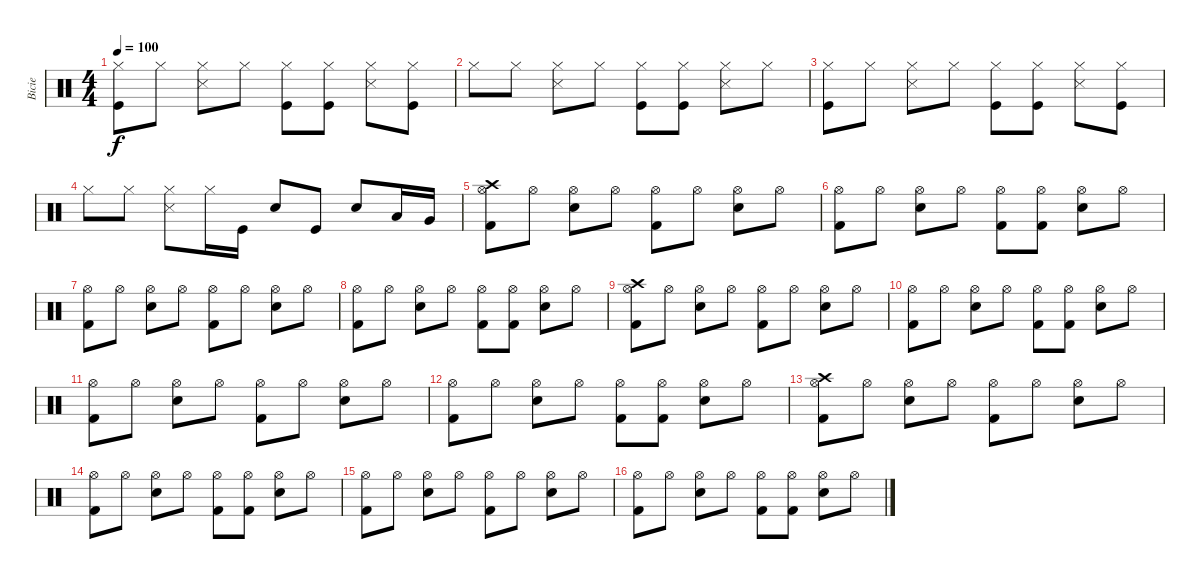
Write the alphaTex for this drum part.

\track ("Bicie" "Bicie") {instrument percussion}
\staff {score}
\articulation defaults
\ts (4 4)
\tempo 100
\clef neutral
\ks c
("Hi-Hat (closed)" "Kick (hit)").8{dy f} "Hi-Hat (closed)".8 ("Hi-Hat (closed)" "Snare (side stick) 3").8 "Hi-Hat (closed)".8 ("Hi-Hat (closed)" "Kick (hit)").8 ("Hi-Hat (closed)" "Kick (hit)").8 ("Hi-Hat (closed)" "Snare (side stick) 3").8 ("Hi-Hat (closed)" "Kick (hit)").8 |
"Hi-Hat (closed)".8 "Hi-Hat (closed)".8 ("Hi-Hat (closed)" "Snare (side stick) 3").8 "Hi-Hat (closed)".8 ("Hi-Hat (closed)" "Kick (hit)").8 ("Hi-Hat (closed)" "Kick (hit)").8 ("Hi-Hat (closed)" "Snare (side stick) 3").8 "Hi-Hat (closed)".8 |
("Hi-Hat (closed)" "Kick (hit)").8 "Hi-Hat (closed)".8 ("Hi-Hat (closed)" "Snare (side stick) 3").8 "Hi-Hat (closed)".8 ("Hi-Hat (closed)" "Kick (hit)").8 ("Hi-Hat (closed)" "Kick (hit)").8 ("Hi-Hat (closed)" "Snare (side stick) 3").8 ("Hi-Hat (closed)" "Kick (hit)").8 |
"Hi-Hat (closed)".8 "Hi-Hat (closed)".8 ("Hi-Hat (closed)" "Snare (side stick) 3").8 "Hi-Hat (closed)".16 "Kick (hit)".16 "Snare (hit) 2".8 "Kick (hit)".8 "Snare (hit) 2".8 "Low Tom (hit)".16 "Very Low Tom (hit)".16 |
("Crash high (hit)" "Hi-Hat (open)" "Kick (hit) 2").8 "Hi-Hat (open)".8 ("Hi-Hat (open)" "Snare (hit) 2").8 "Hi-Hat (open)".8 ("Hi-Hat (open)" "Kick (hit) 2").8 "Hi-Hat (open)".8 ("Hi-Hat (open)" "Snare (hit) 2").8 "Hi-Hat (open)".8 |
("Hi-Hat (open)" "Kick (hit) 2").8 "Hi-Hat (open)".8 ("Hi-Hat (open)" "Snare (hit) 2").8 "Hi-Hat (open)".8 ("Hi-Hat (open)" "Kick (hit) 2").8 ("Hi-Hat (open)" "Kick (hit) 2").8 ("Hi-Hat (open)" "Snare (hit) 2").8 "Hi-Hat (open)".8 |
("Hi-Hat (open)" "Kick (hit) 2").8 "Hi-Hat (open)".8 ("Hi-Hat (open)" "Snare (hit) 2").8 "Hi-Hat (open)".8 ("Hi-Hat (open)" "Kick (hit) 2").8 "Hi-Hat (open)".8 ("Hi-Hat (open)" "Snare (hit) 2").8 "Hi-Hat (open)".8 |
("Hi-Hat (open)" "Kick (hit) 2").8 "Hi-Hat (open)".8 ("Hi-Hat (open)" "Snare (hit) 2").8 "Hi-Hat (open)".8 ("Hi-Hat (open)" "Kick (hit) 2").8 ("Hi-Hat (open)" "Kick (hit) 2").8 ("Hi-Hat (open)" "Snare (hit) 2").8 "Hi-Hat (open)".8 |
("Crash high (hit)" "Hi-Hat (open)" "Kick (hit) 2").8 "Hi-Hat (open)".8 ("Hi-Hat (open)" "Snare (hit) 2").8 "Hi-Hat (open)".8 ("Hi-Hat (open)" "Kick (hit) 2").8 "Hi-Hat (open)".8 ("Hi-Hat (open)" "Snare (hit) 2").8 "Hi-Hat (open)".8 |
("Hi-Hat (open)" "Kick (hit) 2").8 "Hi-Hat (open)".8 ("Hi-Hat (open)" "Snare (hit) 2").8 "Hi-Hat (open)".8 ("Hi-Hat (open)" "Kick (hit) 2").8 ("Hi-Hat (open)" "Kick (hit) 2").8 ("Hi-Hat (open)" "Snare (hit) 2").8 "Hi-Hat (open)".8 |
("Hi-Hat (open)" "Kick (hit) 2").8 "Hi-Hat (open)".8 ("Hi-Hat (open)" "Snare (hit) 2").8 "Hi-Hat (open)".8 ("Hi-Hat (open)" "Kick (hit) 2").8 "Hi-Hat (open)".8 ("Hi-Hat (open)" "Snare (hit) 2").8 "Hi-Hat (open)".8 |
("Hi-Hat (open)" "Kick (hit) 2").8 "Hi-Hat (open)".8 ("Hi-Hat (open)" "Snare (hit) 2").8 "Hi-Hat (open)".8 ("Hi-Hat (open)" "Kick (hit) 2").8 ("Hi-Hat (open)" "Kick (hit) 2").8 ("Hi-Hat (open)" "Snare (hit) 2").8 "Hi-Hat (open)".8 |
("Crash high (hit)" "Hi-Hat (open)" "Kick (hit) 2").8 "Hi-Hat (open)".8 ("Hi-Hat (open)" "Snare (hit) 2").8 "Hi-Hat (open)".8 ("Hi-Hat (open)" "Kick (hit) 2").8 "Hi-Hat (open)".8 ("Hi-Hat (open)" "Snare (hit) 2").8 "Hi-Hat (open)".8 |
("Hi-Hat (open)" "Kick (hit) 2").8 "Hi-Hat (open)".8 ("Hi-Hat (open)" "Snare (hit) 2").8 "Hi-Hat (open)".8 ("Hi-Hat (open)" "Kick (hit) 2").8 ("Hi-Hat (open)" "Kick (hit) 2").8 ("Hi-Hat (open)" "Snare (hit) 2").8 "Hi-Hat (open)".8 |
("Hi-Hat (open)" "Kick (hit) 2").8 "Hi-Hat (open)".8 ("Hi-Hat (open)" "Snare (hit) 2").8 "Hi-Hat (open)".8 ("Hi-Hat (open)" "Kick (hit) 2").8 "Hi-Hat (open)".8 ("Hi-Hat (open)" "Snare (hit) 2").8 "Hi-Hat (open)".8 |
("Hi-Hat (open)" "Kick (hit) 2").8 "Hi-Hat (open)".8 ("Hi-Hat (open)" "Snare (hit) 2").8 "Hi-Hat (open)".8 ("Hi-Hat (open)" "Kick (hit) 2").8 ("Hi-Hat (open)" "Kick (hit) 2").8 ("Hi-Hat (open)" "Snare (hit) 2").8 "Hi-Hat (open)".8
